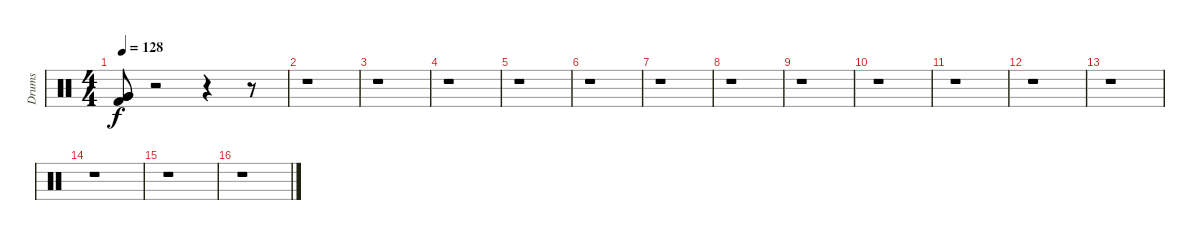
\track ("Drums" "Drums") {solo instrument percussion}
\staff {score}
\articulation defaults
\ts (4 4)
\tempo 128
\clef neutral
\ks c
("Very Low Tom (hit)" "Very Low Tom (hit)" "Kick (hit) 2").8{dy f} r.2 r.4 r.8 |
r.1 |
r.1 |
r.1 |
r.1 |
r.1 |
r.1 |
r.1 |
r.1 |
r.1 |
r.1 |
r.1 |
r.1 |
r.1 |
r.1 |
r.1
